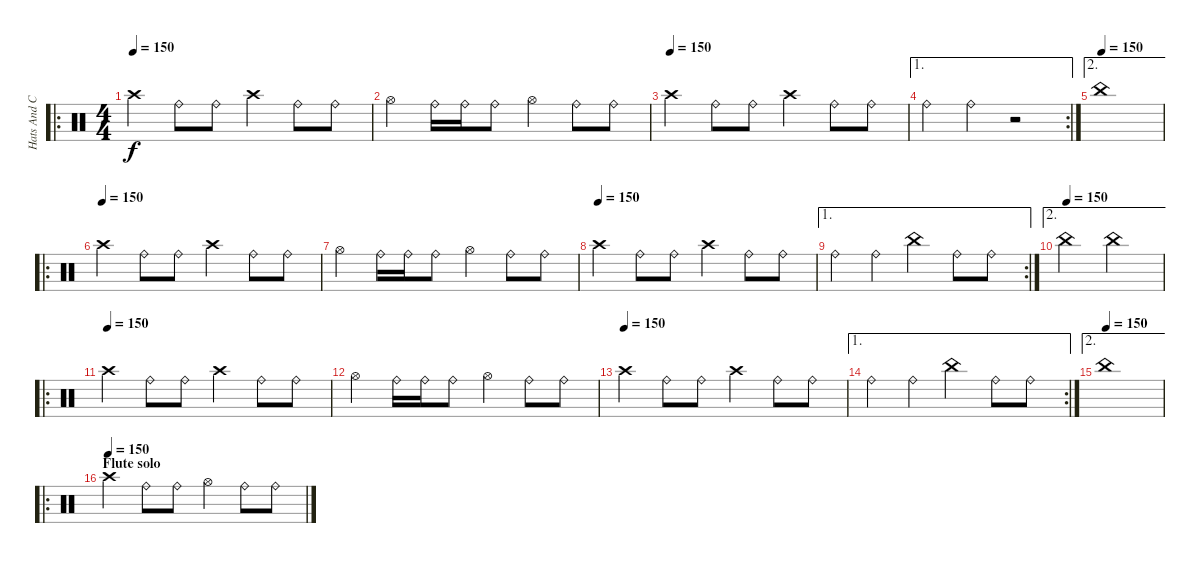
\track ("Hats And Cymbals" "Hats And C") {instrument percussion}
\staff {score}
\articulation defaults
\ro
\ts (4 4)
\tempo 150
\clef neutral
\ks c "Crash high (hit)".4{dy f} "Ride (bell)".8 "Ride (bell)".8 "Crash high (hit)".4 "Ride (bell)".8 "Ride (bell)".8
|
"Hi-Hat (open)".4 "Ride (bell)".16 "Ride (bell)".16 "Ride (bell)".8 "Hi-Hat (open)".4 "Ride (bell)".8 "Ride (bell)".8 |
\tempo (150)
"Crash high (hit)".4 "Ride (bell)".8 "Ride (bell)".8 "Crash high (hit)".4 "Ride (bell)".8 "Ride (bell)".8 |
\ae 1
\rc 2 "Ride (bell)".4 "Ride (bell)".4
r.2 |
\ae 2
\tempo (150)
"China (hit)".1 |
\ro
\tempo (150)
"Crash high (hit)".4 "Ride (bell)".8 "Ride (bell)".8 "Crash high (hit)".4 "Ride (bell)".8 "Ride (bell)".8 |
"Hi-Hat (open)".4 "Ride (bell)".16 "Ride (bell)".16 "Ride (bell)".8 "Hi-Hat (open)".4 "Ride (bell)".8 "Ride (bell)".8 |
\tempo (150)
"Crash high (hit)".4 "Ride (bell)".8 "Ride (bell)".8 "Crash high (hit)".4 "Ride (bell)".8 "Ride (bell)".8 |
\ae 1
\rc 2 "Ride (bell)".4 "Ride (bell)".4 "China (hit)".4 "Ride (bell)".8 "Ride (bell)".8
|
\ae 2
\tempo (150)
"China (hit)".2 "China (hit)".2 |
\ro
\tempo (150)
"Crash high (hit)".4 "Ride (bell)".8 "Ride (bell)".8 "Crash high (hit)".4 "Ride (bell)".8 "Ride (bell)".8 |
"Hi-Hat (open)".4 "Ride (bell)".16 "Ride (bell)".16 "Ride (bell)".8 "Hi-Hat (open)".4 "Ride (bell)".8 "Ride (bell)".8 |
\tempo (150)
"Crash high (hit)".4 "Ride (bell)".8 "Ride (bell)".8 "Crash high (hit)".4 "Ride (bell)".8 "Ride (bell)".8 |
\ae 1
\rc 2 "Ride (bell)".4 "Ride (bell)".4 "China (hit)".4 "Ride (bell)".8 "Ride (bell)".8
|
\ae 2
\tempo (150)
"China (hit)".1 |
\ro
\section ("" "Flute solo")
\tempo (150)
"Crash high (hit)".4 "Ride (bell)".8 "Ride (bell)".8 "Hi-Hat (open)".4 "Ride (bell)".8 "Ride (bell)".8
